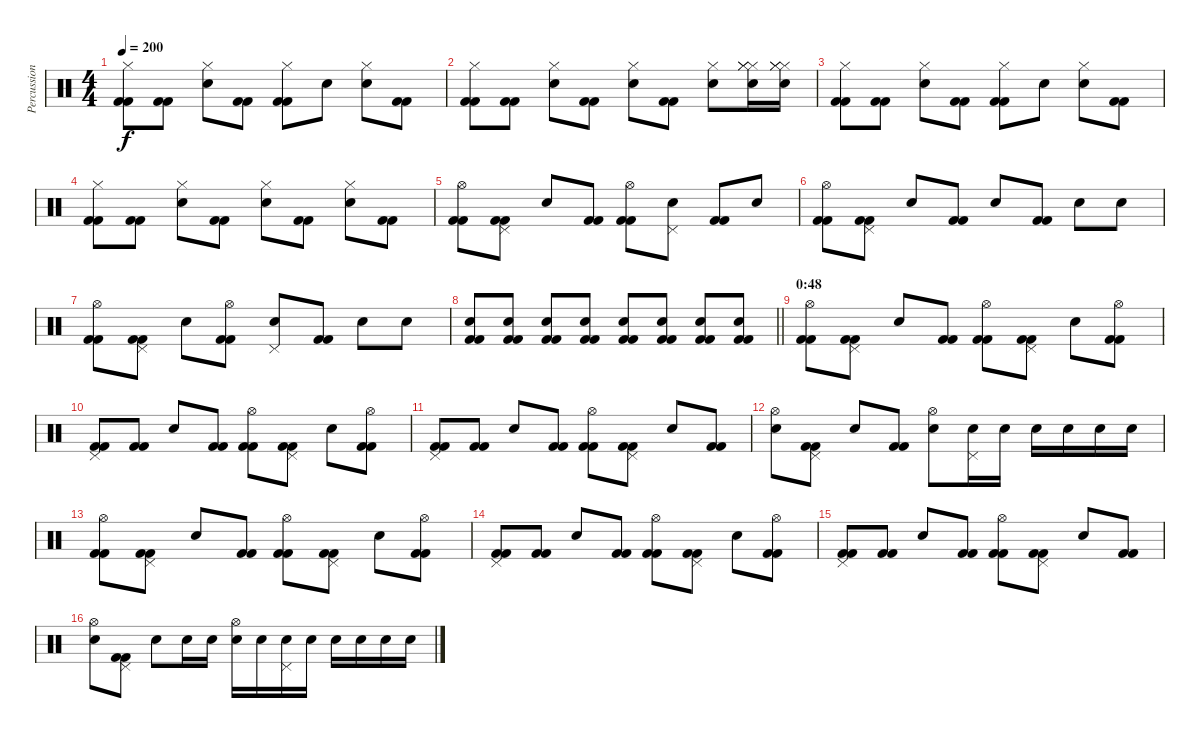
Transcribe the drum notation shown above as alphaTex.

\track ("Percussion" "Percussion") {instrument percussion}
\staff {score}
\articulation defaults
\ts (4 4)
\tempo 200
\clef neutral
\ks c
("Hi-Hat (closed)" "Kick (hit) 2" "Kick (hit) 2").8{dy f} ("Kick (hit) 2" "Kick (hit) 2").8 ("Hi-Hat (closed)" "Snare (hit) 2").8 ("Kick (hit) 2" "Kick (hit) 2").8 ("Hi-Hat (closed)" "Kick (hit) 2" "Kick (hit) 2").8 "Snare (hit) 2".8 ("Hi-Hat (closed)" "Snare (hit) 2").8 ("Kick (hit) 2" "Kick (hit) 2").8 |
("Hi-Hat (closed)" "Kick (hit) 2" "Kick (hit) 2").8 ("Kick (hit) 2" "Kick (hit) 2").8 ("Hi-Hat (closed)" "Snare (hit) 2").8 ("Kick (hit) 2" "Kick (hit) 2").8 ("Hi-Hat (closed)" "Snare (hit) 2").8 ("Kick (hit) 2" "Kick (hit) 2").8 ("Hi-Hat (closed)" "Snare (hit) 2").8 ("Hi-Hat (closed)" "Hi-Hat (closed)" "Snare (hit) 2" "Hi-Hat (closed)").16 ("Hi-Hat (closed)" "Hi-Hat (closed)" "Snare (hit) 2" "Hi-Hat (closed)").16 |
("Hi-Hat (closed)" "Kick (hit) 2" "Kick (hit) 2").8 ("Kick (hit) 2" "Kick (hit) 2").8 ("Hi-Hat (closed)" "Snare (hit) 2").8 ("Kick (hit) 2" "Kick (hit) 2").8 ("Hi-Hat (closed)" "Kick (hit) 2" "Kick (hit) 2").8 "Snare (hit) 2".8 ("Hi-Hat (closed)" "Snare (hit) 2").8 ("Kick (hit) 2" "Kick (hit) 2").8 |
("Hi-Hat (closed)" "Kick (hit) 2" "Kick (hit) 2").8 ("Kick (hit) 2" "Kick (hit) 2").8 ("Hi-Hat (closed)" "Snare (hit) 2").8 ("Kick (hit) 2" "Kick (hit) 2").8 ("Hi-Hat (closed)" "Snare (hit) 2").8 ("Kick (hit) 2" "Kick (hit) 2").8 ("Hi-Hat (closed)" "Snare (hit) 2").8 ("Kick (hit) 2" "Kick (hit) 2").8 |
("Hi-Hat (open)" "Kick (hit) 2" "Kick (hit) 2").8 ("Pedal Hi-Hat (hit)" "Kick (hit) 2" "Kick (hit) 2").8 "Snare (hit) 2".8 ("Kick (hit) 2" "Kick (hit) 2").8 ("Hi-Hat (open)" "Kick (hit) 2" "Kick (hit) 2").8 ("Pedal Hi-Hat (hit)" "Snare (hit) 2").8 ("Kick (hit) 2" "Kick (hit) 2").8 "Snare (hit) 2".8 |
("Hi-Hat (open)" "Kick (hit) 2" "Kick (hit) 2").8 ("Pedal Hi-Hat (hit)" "Kick (hit) 2" "Kick (hit) 2").8 "Snare (hit) 2".8 ("Kick (hit) 2" "Kick (hit) 2").8 "Snare (hit) 2".8 ("Kick (hit) 2" "Kick (hit) 2").8 "Snare (hit) 2".8 "Snare (hit) 2".8 |
("Hi-Hat (open)" "Kick (hit) 2" "Kick (hit) 2").8 ("Pedal Hi-Hat (hit)" "Kick (hit) 2" "Kick (hit) 2").8 "Snare (hit) 2".8 ("Hi-Hat (open)" "Kick (hit) 2" "Kick (hit) 2").8 ("Pedal Hi-Hat (hit)" "Snare (hit) 2").8 ("Kick (hit) 2" "Kick (hit) 2").8 "Snare (hit) 2".8 "Snare (hit) 2".8 |
\barLineRight lightlight
("Snare (hit) 2" "Kick (hit) 2" "Kick (hit) 2").8 ("Snare (hit) 2" "Kick (hit) 2" "Kick (hit) 2").8 ("Snare (hit) 2" "Kick (hit) 2" "Kick (hit) 2").8 ("Snare (hit) 2" "Kick (hit) 2" "Kick (hit) 2").8 ("Snare (hit) 2" "Kick (hit) 2" "Kick (hit) 2").8 ("Snare (hit) 2" "Kick (hit) 2" "Kick (hit) 2").8 ("Snare (hit) 2" "Kick (hit) 2" "Kick (hit) 2").8 ("Snare (hit) 2" "Kick (hit) 2" "Kick (hit) 2").8 |
\section ("" "0:48")
("Hi-Hat (open)" "Kick (hit) 2" "Kick (hit) 2").8 ("Pedal Hi-Hat (hit)" "Kick (hit) 2" "Kick (hit) 2").8 "Snare (hit) 2".8 ("Kick (hit) 2" "Kick (hit) 2").8 ("Hi-Hat (open)" "Kick (hit) 2" "Kick (hit) 2").8 ("Pedal Hi-Hat (hit)" "Kick (hit) 2" "Kick (hit) 2").8 "Snare (hit) 2".8 ("Hi-Hat (open)" "Kick (hit) 2" "Kick (hit) 2").8 |
("Pedal Hi-Hat (hit)" "Kick (hit) 2" "Kick (hit) 2").8 ("Kick (hit) 2" "Kick (hit) 2").8 "Snare (hit) 2".8 ("Kick (hit) 2" "Kick (hit) 2").8 ("Hi-Hat (open)" "Kick (hit) 2" "Kick (hit) 2").8 ("Pedal Hi-Hat (hit)" "Kick (hit) 2" "Kick (hit) 2").8 "Snare (hit) 2".8 ("Hi-Hat (open)" "Kick (hit) 2" "Kick (hit) 2").8 |
("Pedal Hi-Hat (hit)" "Kick (hit) 2" "Kick (hit) 2").8 ("Kick (hit) 2" "Kick (hit) 2").8 "Snare (hit) 2".8 ("Kick (hit) 2" "Kick (hit) 2").8 ("Hi-Hat (open)" "Kick (hit) 2" "Kick (hit) 2").8 ("Pedal Hi-Hat (hit)" "Kick (hit) 2" "Kick (hit) 2").8 "Snare (hit) 2".8 ("Kick (hit) 2" "Kick (hit) 2").8 |
("Hi-Hat (open)" "Snare (hit) 2").8 ("Pedal Hi-Hat (hit)" "Kick (hit) 2" "Kick (hit) 2").8 "Snare (hit) 2".8 ("Kick (hit) 2" "Kick (hit) 2").8 ("Hi-Hat (open)" "Snare (hit) 2").8 ("Pedal Hi-Hat (hit)" "Snare (hit) 2").16 "Snare (hit) 2".16 "Snare (hit) 2".16 "Snare (hit) 2".16 "Snare (hit) 2".16 "Snare (hit) 2".16 |
("Hi-Hat (open)" "Kick (hit) 2" "Kick (hit) 2").8 ("Pedal Hi-Hat (hit)" "Kick (hit) 2" "Kick (hit) 2").8 "Snare (hit) 2".8 ("Kick (hit) 2" "Kick (hit) 2").8 ("Hi-Hat (open)" "Kick (hit) 2" "Kick (hit) 2").8 ("Pedal Hi-Hat (hit)" "Kick (hit) 2" "Kick (hit) 2").8 "Snare (hit) 2".8 ("Hi-Hat (open)" "Kick (hit) 2" "Kick (hit) 2").8 |
("Pedal Hi-Hat (hit)" "Kick (hit) 2" "Kick (hit) 2").8 ("Kick (hit) 2" "Kick (hit) 2").8 "Snare (hit) 2".8 ("Kick (hit) 2" "Kick (hit) 2").8 ("Hi-Hat (open)" "Kick (hit) 2" "Kick (hit) 2").8 ("Pedal Hi-Hat (hit)" "Kick (hit) 2" "Kick (hit) 2").8 "Snare (hit) 2".8 ("Hi-Hat (open)" "Kick (hit) 2" "Kick (hit) 2").8 |
("Pedal Hi-Hat (hit)" "Kick (hit) 2" "Kick (hit) 2").8 ("Kick (hit) 2" "Kick (hit) 2").8 "Snare (hit) 2".8 ("Kick (hit) 2" "Kick (hit) 2").8 ("Hi-Hat (open)" "Kick (hit) 2" "Kick (hit) 2").8 ("Pedal Hi-Hat (hit)" "Kick (hit) 2" "Kick (hit) 2").8 "Snare (hit) 2".8 ("Kick (hit) 2" "Kick (hit) 2").8 |
("Hi-Hat (open)" "Snare (hit) 2").8 ("Pedal Hi-Hat (hit)" "Kick (hit) 2" "Kick (hit) 2").8 "Snare (hit) 2".8 "Snare (hit) 2".16 "Snare (hit) 2".16 ("Hi-Hat (open)" "Snare (hit) 2").16 "Snare (hit) 2".16 ("Pedal Hi-Hat (hit)" "Snare (hit) 2").16 "Snare (hit) 2".16 "Snare (hit) 2".16 "Snare (hit) 2".16 "Snare (hit) 2".16 "Snare (hit) 2".16
